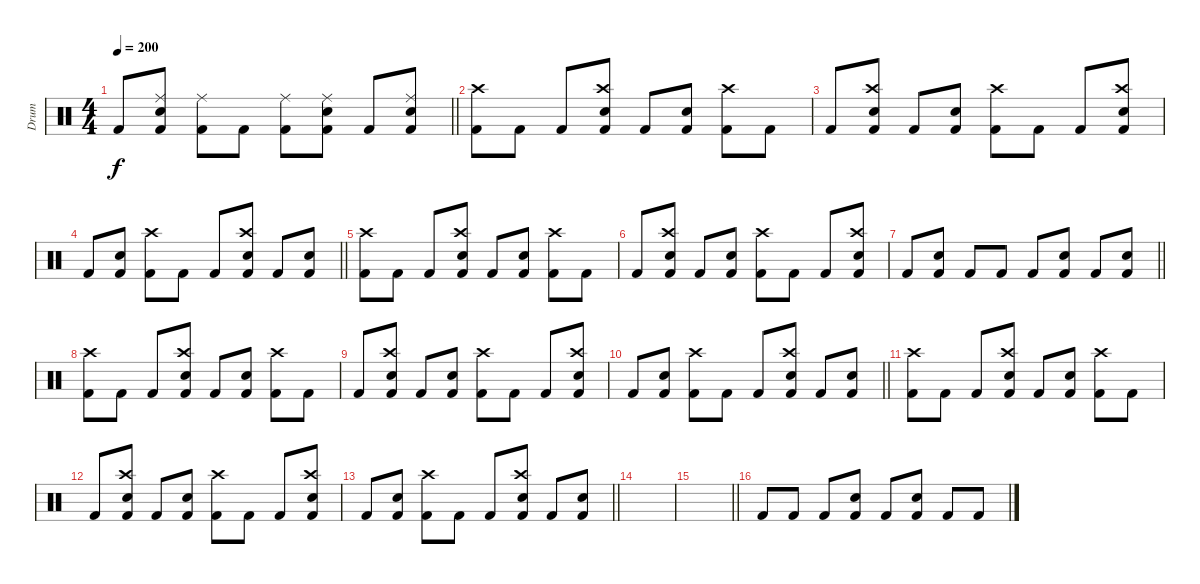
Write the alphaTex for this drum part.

\track ("Drum" "Drum") {instrument percussion}
\staff {score}
\articulation defaults
\ts (4 4)
\tempo 200
\clef neutral
\barLineRight lightlight
\ks c "Kick (hit) 2".8{dy f}
("Ride (middle)" "Electric Snare (hit)" "Kick (hit) 2").8 ("Ride (middle)" "Kick (hit) 2").8 "Kick (hit) 2".8 ("Ride (middle)" "Kick (hit) 2").8 ("Ride (middle)" "Electric Snare (hit)" "Kick (hit) 2").8 "Kick (hit) 2".8 ("Ride (middle)" "Electric Snare (hit)" "Kick (hit) 2").8 |
("Crash high (hit)" "Kick (hit) 2").8 "Kick (hit) 2".8 "Kick (hit) 2".8 ("Snare (hit) 2" "Crash high (hit)" "Kick (hit) 2").8 "Kick (hit) 2".8 ("Snare (hit) 2" "Kick (hit) 2").8 ("Crash high (hit)" "Kick (hit) 2").8 "Kick (hit) 2".8 |
"Kick (hit) 2".8 ("Snare (hit) 2" "Crash high (hit)" "Kick (hit) 2").8 "Kick (hit) 2".8 ("Snare (hit) 2" "Kick (hit) 2").8 ("Crash high (hit)" "Kick (hit) 2").8 "Kick (hit) 2".8 "Kick (hit) 2".8 ("Snare (hit) 2" "Crash high (hit)" "Kick (hit) 2").8 |
\barLineRight lightlight "Kick (hit) 2".8
("Snare (hit) 2" "Kick (hit) 2").8 ("Crash high (hit)" "Kick (hit) 2").8 "Kick (hit) 2".8 "Kick (hit) 2".8 ("Snare (hit) 2" "Crash high (hit)" "Kick (hit) 2").8 "Kick (hit) 2".8 ("Snare (hit) 2" "Kick (hit) 2").8 |
("Crash high (hit)" "Kick (hit) 2").8 "Kick (hit) 2".8 "Kick (hit) 2".8 ("Snare (hit) 2" "Crash high (hit)" "Kick (hit) 2").8 "Kick (hit) 2".8 ("Snare (hit) 2" "Kick (hit) 2").8 ("Crash high (hit)" "Kick (hit) 2").8 "Kick (hit) 2".8 |
"Kick (hit) 2".8 ("Snare (hit) 2" "Crash high (hit)" "Kick (hit) 2").8 "Kick (hit) 2".8 ("Snare (hit) 2" "Kick (hit) 2").8 ("Crash high (hit)" "Kick (hit) 2").8 "Kick (hit) 2".8 "Kick (hit) 2".8 ("Snare (hit) 2" "Crash high (hit)" "Kick (hit) 2").8 |
\barLineRight lightlight "Kick (hit) 2".8
("Electric Snare (hit)" "Kick (hit) 2").8 "Kick (hit) 2".8 "Kick (hit) 2".8 "Kick (hit) 2".8 ("Electric Snare (hit)" "Kick (hit) 2").8 "Kick (hit) 2".8 ("Electric Snare (hit)" "Kick (hit) 2").8 |
("Crash high (hit)" "Kick (hit) 2").8 "Kick (hit) 2".8 "Kick (hit) 2".8 ("Snare (hit) 2" "Crash high (hit)" "Kick (hit) 2").8 "Kick (hit) 2".8 ("Snare (hit) 2" "Kick (hit) 2").8 ("Crash high (hit)" "Kick (hit) 2").8 "Kick (hit) 2".8 |
"Kick (hit) 2".8 ("Snare (hit) 2" "Crash high (hit)" "Kick (hit) 2").8 "Kick (hit) 2".8 ("Snare (hit) 2" "Kick (hit) 2").8 ("Crash high (hit)" "Kick (hit) 2").8 "Kick (hit) 2".8 "Kick (hit) 2".8 ("Snare (hit) 2" "Crash high (hit)" "Kick (hit) 2").8 |
\barLineRight lightlight "Kick (hit) 2".8
("Snare (hit) 2" "Kick (hit) 2").8 ("Crash high (hit)" "Kick (hit) 2").8 "Kick (hit) 2".8 "Kick (hit) 2".8 ("Snare (hit) 2" "Crash high (hit)" "Kick (hit) 2").8 "Kick (hit) 2".8 ("Snare (hit) 2" "Kick (hit) 2").8 |
("Crash high (hit)" "Kick (hit) 2").8 "Kick (hit) 2".8 "Kick (hit) 2".8 ("Snare (hit) 2" "Crash high (hit)" "Kick (hit) 2").8 "Kick (hit) 2".8 ("Snare (hit) 2" "Kick (hit) 2").8 ("Crash high (hit)" "Kick (hit) 2").8 "Kick (hit) 2".8 |
"Kick (hit) 2".8 ("Snare (hit) 2" "Crash high (hit)" "Kick (hit) 2").8 "Kick (hit) 2".8 ("Snare (hit) 2" "Kick (hit) 2").8 ("Crash high (hit)" "Kick (hit) 2").8 "Kick (hit) 2".8 "Kick (hit) 2".8 ("Snare (hit) 2" "Crash high (hit)" "Kick (hit) 2").8 |
\barLineRight lightlight "Kick (hit) 2".8
("Snare (hit) 2" "Kick (hit) 2").8 ("Crash high (hit)" "Kick (hit) 2").8 "Kick (hit) 2".8 "Kick (hit) 2".8 ("Snare (hit) 2" "Crash high (hit)" "Kick (hit) 2").8 "Kick (hit) 2".8 ("Snare (hit) 2" "Kick (hit) 2").8 |
\section ("" " ")
|
\barLineRight lightlight
|
\section ("" " ")
"Kick (hit) 2".8 "Kick (hit) 2".8 "Kick (hit) 2".8 ("Snare (hit) 2" "Kick (hit) 2").8 "Kick (hit) 2".8 ("Snare (hit) 2" "Kick (hit) 2").8 "Kick (hit) 2".8 "Kick (hit) 2".8
